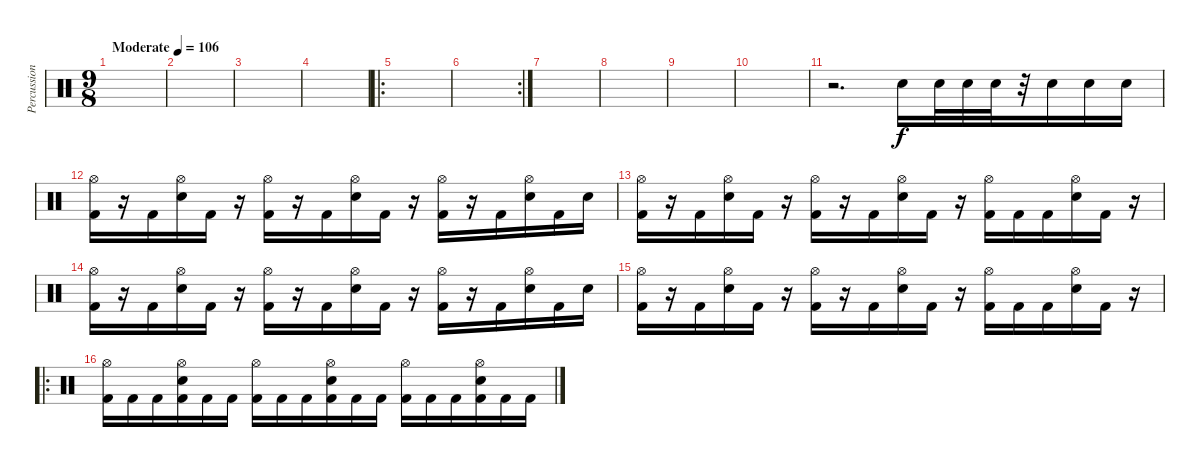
\track ("Percussion" "Percussion") {instrument percussion}
\staff {score}
\articulation defaults
\ts (9 8)
\tempo (106 "Moderate")
\clef neutral
\ks c
|
|
|
|
\ro
|
\rc 2
|
|
|
|
|
r.2{d} "Electric Snare (hit)".16 "Electric Snare (hit)".32 "Electric Snare (hit)".32 "Electric Snare (hit)".32 r.32 "Electric Snare (hit)".16 "Electric Snare (hit)".16 "Electric Snare (hit)".16 |
("Hi-Hat (open)" "Kick (hit) 2").16 r.16 "Kick (hit) 2".16 ("Hi-Hat (open)" "Electric Snare (hit)").16 "Kick (hit) 2".16 r.16 ("Hi-Hat (open)" "Kick (hit) 2").16 r.16 "Kick (hit) 2".16 ("Hi-Hat (open)" "Electric Snare (hit)").16 "Kick (hit) 2".16 r.16 ("Hi-Hat (open)" "Kick (hit) 2").16 r.16 "Kick (hit) 2".16 ("Hi-Hat (open)" "Electric Snare (hit)").16 "Kick (hit) 2".16 "Electric Snare (hit)".16 |
("Hi-Hat (open)" "Kick (hit) 2").16 r.16 "Kick (hit) 2".16 ("Hi-Hat (open)" "Electric Snare (hit)").16 "Kick (hit) 2".16 r.16 ("Hi-Hat (open)" "Kick (hit) 2").16 r.16 "Kick (hit) 2".16 ("Hi-Hat (open)" "Electric Snare (hit)").16 "Kick (hit) 2".16 r.16 ("Hi-Hat (open)" "Kick (hit) 2").16 "Kick (hit) 2".16 "Kick (hit) 2".16 ("Hi-Hat (open)" "Electric Snare (hit)").16 "Kick (hit) 2".16 r.16 |
("Hi-Hat (open)" "Kick (hit) 2").16 r.16 "Kick (hit) 2".16 ("Hi-Hat (open)" "Electric Snare (hit)").16 "Kick (hit) 2".16 r.16 ("Hi-Hat (open)" "Kick (hit) 2").16 r.16 "Kick (hit) 2".16 ("Hi-Hat (open)" "Electric Snare (hit)").16 "Kick (hit) 2".16 r.16 ("Hi-Hat (open)" "Kick (hit) 2").16 r.16 "Kick (hit) 2".16 ("Hi-Hat (open)" "Electric Snare (hit)").16 "Kick (hit) 2".16 "Electric Snare (hit)".16 |
("Hi-Hat (open)" "Kick (hit) 2").16 r.16 "Kick (hit) 2".16 ("Hi-Hat (open)" "Electric Snare (hit)").16 "Kick (hit) 2".16 r.16 ("Hi-Hat (open)" "Kick (hit) 2").16 r.16 "Kick (hit) 2".16 ("Hi-Hat (open)" "Electric Snare (hit)").16 "Kick (hit) 2".16 r.16 ("Hi-Hat (open)" "Kick (hit) 2").16 "Kick (hit) 2".16 "Kick (hit) 2".16 ("Hi-Hat (open)" "Electric Snare (hit)").16 "Kick (hit) 2".16 r.16 |
\ro
("Hi-Hat (open)" "Kick (hit) 2").16 "Kick (hit) 2".16 "Kick (hit) 2".16 ("Hi-Hat (open)" "Electric Snare (hit)" "Kick (hit) 2").16 "Kick (hit) 2".16 "Kick (hit) 2".16 ("Hi-Hat (open)" "Kick (hit) 2").16 "Kick (hit) 2".16 "Kick (hit) 2".16 ("Hi-Hat (open)" "Electric Snare (hit)" "Kick (hit) 2").16 "Kick (hit) 2".16 "Kick (hit) 2".16 ("Hi-Hat (open)" "Kick (hit) 2").16 "Kick (hit) 2".16 "Kick (hit) 2".16 ("Hi-Hat (open)" "Electric Snare (hit)" "Kick (hit) 2").16 "Kick (hit) 2".16 "Kick (hit) 2".16
